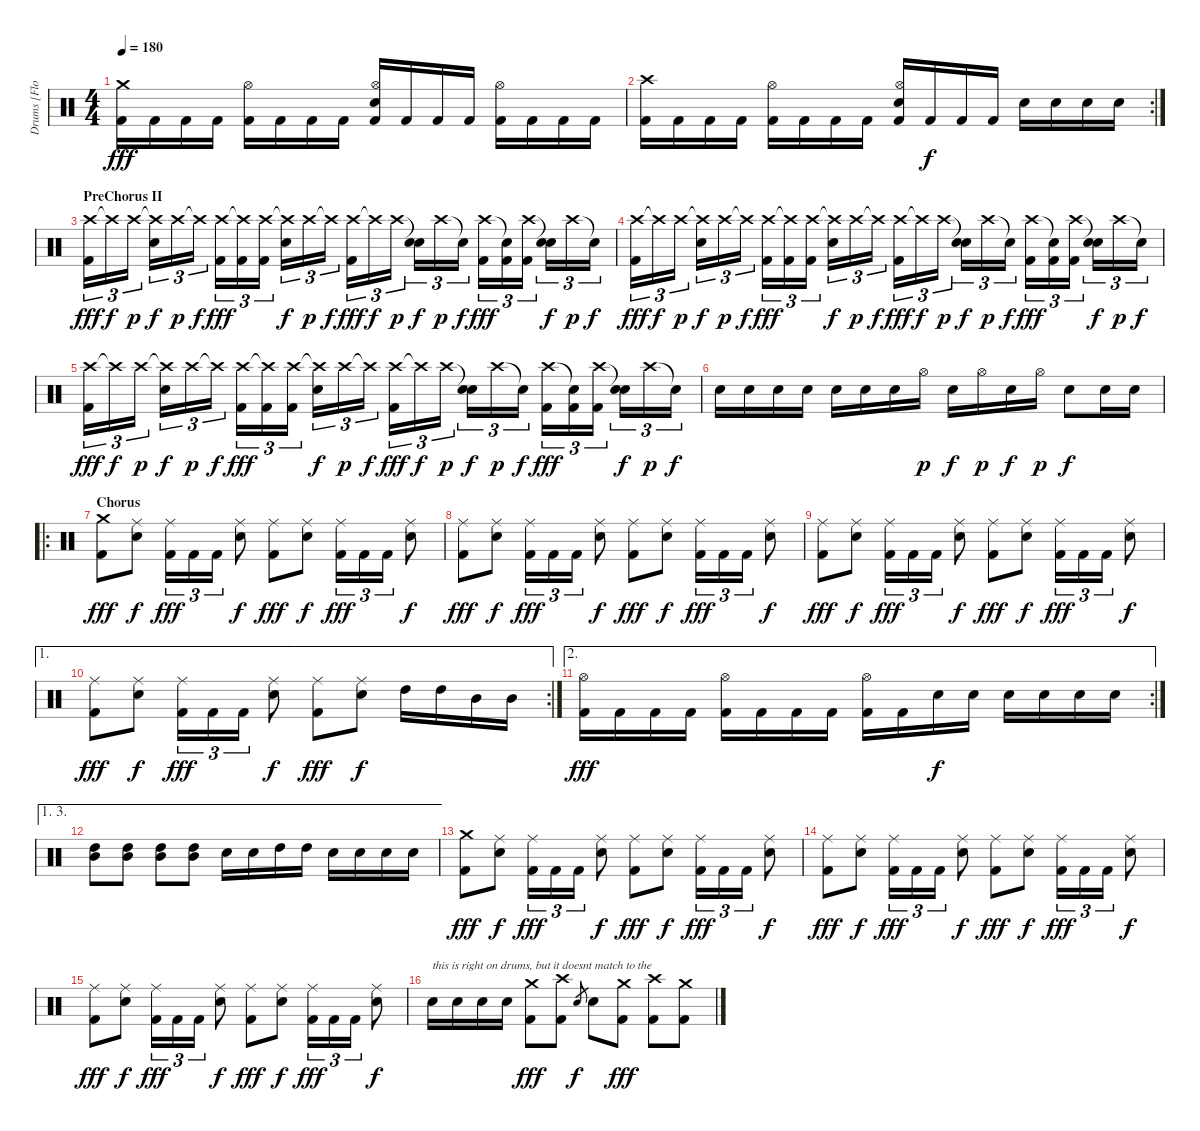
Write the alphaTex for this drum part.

\track ("Drums [Flo Mounier]" "Drums [Flo") {instrument percussion}
\staff {score}
\articulation defaults
\ts (4 4)
\tempo 180
\clef neutral
\ks c
("Crash medium (hit)" "Kick (hit) 2").16{dy fff} "Kick (hit) 2".16 "Kick (hit) 2".16 "Kick (hit) 2".16 ("Hi-Hat (open)" "Kick (hit) 2").16 "Kick (hit) 2".16 "Kick (hit) 2".16 "Kick (hit) 2".16 ("Hi-Hat (open)" "Electric Snare (hit)" "Kick (hit) 2").16 "Kick (hit) 2".16 "Kick (hit) 2".16 "Kick (hit) 2".16 ("Hi-Hat (open)" "Kick (hit) 2").16 "Kick (hit) 2".16 "Kick (hit) 2".16 "Kick (hit) 2".16 |
\rc 2
("Crash high (hit)" "Kick (hit) 2").16 "Kick (hit) 2".16 "Kick (hit) 2".16 "Kick (hit) 2".16 ("Hi-Hat (open)" "Kick (hit) 2").16 "Kick (hit) 2".16 "Kick (hit) 2".16 "Kick (hit) 2".16 ("Hi-Hat (open)" "Electric Snare (hit)" "Kick (hit) 2").16 "Kick (hit) 2".16{dy f} "Kick (hit) 2".16 "Kick (hit) 2".16 "Electric Snare (hit)".16 "Electric Snare (hit)".16 "Electric Snare (hit)".16 "Electric Snare (hit)".16 |
\section ("" "PreChorus II")
("Crash high (hit)" "Kick (hit) 2").16{tu (3 2) dy fff} "Crash high (hit)"{t}.16{tu (3 2) dy f} "Crash high (hit)".16{tu (3 2) dy p} ("Crash high (hit)"{t} "Electric Snare (hit)").16{tu (3 2) dy f} "Crash high (hit)".16{tu (3 2) dy p} "Crash high (hit)"{t}.16{tu (3 2) dy f} ("Crash high (hit)" "Kick (hit) 2").16{tu (3 2) dy fff} ("Crash high (hit)"{t} "Kick (hit) 2").16{tu (3 2)} ("Crash high (hit)" "Kick (hit) 2").16{tu (3 2)} ("Crash high (hit)"{t} "Electric Snare (hit)").16{tu (3 2) dy f} "Crash high (hit)".16{tu (3 2) dy p} "Crash high (hit)"{t}.16{tu (3 2) dy f} ("Crash high (hit)" "Kick (hit) 2").16{tu (3 2) dy fff} "Crash high (hit)"{t}.16{tu (3 2) dy f} "Crash high (hit)".16{tu (3 2) dy p} ("Snare (hit)"{t} "Electric Snare (hit)").16{tu (3 2) dy f} "Crash high (hit)".16{tu (3 2) dy p} "Snare (hit)"{t}.16{tu (3 2) dy f} ("Crash high (hit)" "Kick (hit) 2").16{tu (3 2) dy fff} ("Snare (hit)"{t} "Kick (hit) 2").16{tu (3 2)} ("Crash high (hit)" "Kick (hit) 2").16{tu (3 2)} ("Snare (hit)"{t} "Electric Snare (hit)").16{tu (3 2) dy f} "Crash high (hit)".16{tu (3 2) dy p} "Snare (hit)"{t}.16{tu (3 2) dy f} |
("Crash high (hit)" "Kick (hit) 2").16{tu (3 2) dy fff} "Crash high (hit)"{t}.16{tu (3 2) dy f} "Crash high (hit)".16{tu (3 2) dy p} ("Crash high (hit)"{t} "Electric Snare (hit)").16{tu (3 2) dy f} "Crash high (hit)".16{tu (3 2) dy p} "Crash high (hit)"{t}.16{tu (3 2) dy f} ("Crash high (hit)" "Kick (hit) 2").16{tu (3 2) dy fff} ("Crash high (hit)"{t} "Kick (hit) 2").16{tu (3 2)} ("Crash high (hit)" "Kick (hit) 2").16{tu (3 2)} ("Crash high (hit)"{t} "Electric Snare (hit)").16{tu (3 2) dy f} "Crash high (hit)".16{tu (3 2) dy p} "Crash high (hit)"{t}.16{tu (3 2) dy f} ("Crash high (hit)" "Kick (hit) 2").16{tu (3 2) dy fff} "Crash high (hit)"{t}.16{tu (3 2) dy f} "Crash high (hit)".16{tu (3 2) dy p} ("Snare (hit)"{t} "Electric Snare (hit)").16{tu (3 2) dy f} "Crash high (hit)".16{tu (3 2) dy p} "Snare (hit)"{t}.16{tu (3 2) dy f} ("Crash high (hit)" "Kick (hit) 2").16{tu (3 2) dy fff} ("Snare (hit)"{t} "Kick (hit) 2").16{tu (3 2)} ("Crash high (hit)" "Kick (hit) 2").16{tu (3 2)} ("Snare (hit)"{t} "Electric Snare (hit)").16{tu (3 2) dy f} "Crash high (hit)".16{tu (3 2) dy p} "Snare (hit)"{t}.16{tu (3 2) dy f} |
("Crash high (hit)" "Kick (hit) 2").16{tu (3 2) dy fff} "Crash high (hit)"{t}.16{tu (3 2) dy f} "Crash high (hit)".16{tu (3 2) dy p} ("Crash high (hit)"{t} "Electric Snare (hit)").16{tu (3 2) dy f} "Crash high (hit)".16{tu (3 2) dy p} "Crash high (hit)"{t}.16{tu (3 2) dy f} ("Crash high (hit)" "Kick (hit) 2").16{tu (3 2) dy fff} ("Crash high (hit)"{t} "Kick (hit) 2").16{tu (3 2)} ("Crash high (hit)" "Kick (hit) 2").16{tu (3 2)} ("Crash high (hit)"{t} "Electric Snare (hit)").16{tu (3 2) dy f} "Crash high (hit)".16{tu (3 2) dy p} "Crash high (hit)"{t}.16{tu (3 2) dy f} ("Crash high (hit)" "Kick (hit) 2").16{tu (3 2) dy fff} "Crash high (hit)"{t}.16{tu (3 2) dy f} "Crash high (hit)".16{tu (3 2) dy p} ("Snare (hit)"{t} "Electric Snare (hit)").16{tu (3 2) dy f} "Crash high (hit)".16{tu (3 2) dy p} "Snare (hit)"{t}.16{tu (3 2) dy f} ("Crash high (hit)" "Kick (hit) 2").16{tu (3 2) dy fff} ("Snare (hit)"{t} "Kick (hit) 2").16{tu (3 2)} ("Crash high (hit)" "Kick (hit) 2").16{tu (3 2)} ("Snare (hit)"{t} "Electric Snare (hit)").16{tu (3 2) dy f} "Crash high (hit)".16{tu (3 2) dy p} "Snare (hit)"{t}.16{tu (3 2) dy f} |
"Electric Snare (hit)".16 "Electric Snare (hit)".16 "Electric Snare (hit)".16 "Electric Snare (hit)".16 "Electric Snare (hit)".16 "Electric Snare (hit)".16 "Electric Snare (hit)".16 "Hi-Hat (open)".16{dy p} "Electric Snare (hit)".16{dy f} "Hi-Hat (open)".16{dy p} "Electric Snare (hit)".16{dy f} "Hi-Hat (open)".16{dy p} "Electric Snare (hit)".8{dy f} "Electric Snare (hit)".16 "Electric Snare (hit)".16 |
\ro
\section ("" "Chorus")
("Crash medium (hit)" "Kick (hit) 2").8{dy fff} ("Ride (middle)" "Electric Snare (hit)").8{dy f} ("Ride (middle)" "Kick (hit) 2").16{tu (3 2) dy fff} "Kick (hit) 2".16{tu (3 2)} "Kick (hit) 2".16{tu (3 2)} ("Ride (middle)" "Electric Snare (hit)").8{dy f} ("Ride (middle)" "Kick (hit) 2").8{dy fff} ("Ride (middle)" "Electric Snare (hit)").8{dy f} ("Ride (middle)" "Kick (hit) 2").16{tu (3 2) dy fff} "Kick (hit) 2".16{tu (3 2)} "Kick (hit) 2".16{tu (3 2)} ("Ride (middle)" "Electric Snare (hit)").8{dy f} |
("Ride (middle)" "Kick (hit) 2").8{dy fff} ("Ride (middle)" "Electric Snare (hit)").8{dy f} ("Ride (middle)" "Kick (hit) 2").16{tu (3 2) dy fff} "Kick (hit) 2".16{tu (3 2)} "Kick (hit) 2".16{tu (3 2)} ("Ride (middle)" "Electric Snare (hit)").8{dy f} ("Ride (middle)" "Kick (hit) 2").8{dy fff} ("Ride (middle)" "Electric Snare (hit)").8{dy f} ("Ride (middle)" "Kick (hit) 2").16{tu (3 2) dy fff} "Kick (hit) 2".16{tu (3 2)} "Kick (hit) 2".16{tu (3 2)} ("Ride (middle)" "Electric Snare (hit)").8{dy f} |
("Ride (middle)" "Kick (hit) 2").8{dy fff} ("Ride (middle)" "Electric Snare (hit)").8{dy f} ("Ride (middle)" "Kick (hit) 2").16{tu (3 2) dy fff} "Kick (hit) 2".16{tu (3 2)} "Kick (hit) 2".16{tu (3 2)} ("Ride (middle)" "Electric Snare (hit)").8{dy f} ("Ride (middle)" "Kick (hit) 2").8{dy fff} ("Ride (middle)" "Electric Snare (hit)").8{dy f} ("Ride (middle)" "Kick (hit) 2").16{tu (3 2) dy fff} "Kick (hit) 2".16{tu (3 2)} "Kick (hit) 2".16{tu (3 2)} ("Ride (middle)" "Electric Snare (hit)").8{dy f} |
\ae 1
\rc 2
("Ride (middle)" "Kick (hit) 2").8{dy fff} ("Ride (middle)" "Electric Snare (hit)").8{dy f} ("Ride (middle)" "Kick (hit) 2").16{tu (3 2) dy fff} "Kick (hit) 2".16{tu (3 2)} "Kick (hit) 2".16{tu (3 2)} ("Ride (middle)" "Electric Snare (hit)").8{dy f} ("Ride (middle)" "Kick (hit) 2").8{dy fff} ("Ride (middle)" "Electric Snare (hit)").8{dy f} "High Tom (hit)".16 "High Tom (hit)".16 "Mid Tom (hit)".16 "Mid Tom (hit)".16 |
\ae 2
\rc 2
("Hi-Hat (open)" "Kick (hit) 2").16{dy fff} "Kick (hit) 2".16 "Kick (hit) 2".16 "Kick (hit) 2".16 ("Hi-Hat (open)" "Kick (hit) 2").16 "Kick (hit) 2".16 "Kick (hit) 2".16 "Kick (hit) 2".16 ("Hi-Hat (open)" "Kick (hit) 2").16 "Kick (hit) 2".16 "Electric Snare (hit)".16{dy f} "Electric Snare (hit)".16 "Electric Snare (hit)".16 "Electric Snare (hit)".16 "Electric Snare (hit)".16 "Electric Snare (hit)".16 |
\ae (1 3)
("High Tom (hit)" "Mid Tom (hit)").8 ("High Tom (hit)" "Mid Tom (hit)").8 ("High Tom (hit)" "Mid Tom (hit)").8 ("High Tom (hit)" "Mid Tom (hit)").8 "Electric Snare (hit)".16 "Electric Snare (hit)".16 "High Tom (hit)".16 "High Tom (hit)".16 "Electric Snare (hit)".16 "Electric Snare (hit)".16 "Electric Snare (hit)".16 "Electric Snare (hit)".16 |
("Crash medium (hit)" "Kick (hit) 2").8{dy fff} ("Ride (middle)" "Electric Snare (hit)").8{dy f} ("Ride (middle)" "Kick (hit) 2").16{tu (3 2) dy fff} "Kick (hit) 2".16{tu (3 2)} "Kick (hit) 2".16{tu (3 2)} ("Ride (middle)" "Electric Snare (hit)").8{dy f} ("Ride (middle)" "Kick (hit) 2").8{dy fff} ("Ride (middle)" "Electric Snare (hit)").8{dy f} ("Ride (middle)" "Kick (hit) 2").16{tu (3 2) dy fff} "Kick (hit) 2".16{tu (3 2)} "Kick (hit) 2".16{tu (3 2)} ("Ride (middle)" "Electric Snare (hit)").8{dy f} |
("Ride (middle)" "Kick (hit) 2").8{dy fff} ("Ride (middle)" "Electric Snare (hit)").8{dy f} ("Ride (middle)" "Kick (hit) 2").16{tu (3 2) dy fff} "Kick (hit) 2".16{tu (3 2)} "Kick (hit) 2".16{tu (3 2)} ("Ride (middle)" "Electric Snare (hit)").8{dy f} ("Ride (middle)" "Kick (hit) 2").8{dy fff} ("Ride (middle)" "Electric Snare (hit)").8{dy f} ("Ride (middle)" "Kick (hit) 2").16{tu (3 2) dy fff} "Kick (hit) 2".16{tu (3 2)} "Kick (hit) 2".16{tu (3 2)} ("Ride (middle)" "Electric Snare (hit)").8{dy f} |
("Ride (middle)" "Kick (hit) 2").8{dy fff} ("Ride (middle)" "Electric Snare (hit)").8{dy f} ("Ride (middle)" "Kick (hit) 2").16{tu (3 2) dy fff} "Kick (hit) 2".16{tu (3 2)} "Kick (hit) 2".16{tu (3 2)} ("Ride (middle)" "Electric Snare (hit)").8{dy f} ("Ride (middle)" "Kick (hit) 2").8{dy fff} ("Ride (middle)" "Electric Snare (hit)").8{dy f} ("Ride (middle)" "Kick (hit) 2").16{tu (3 2) dy fff} "Kick (hit) 2".16{tu (3 2)} "Kick (hit) 2".16{tu (3 2)} ("Ride (middle)" "Electric Snare (hit)").8{dy f} |
"Electric Snare (hit)".16{txt "this is right on drums, but it doesnt match to the"} "Electric Snare (hit)".16 "Electric Snare (hit)".16 "Electric Snare (hit)".16 ("Crash medium (hit)" "Kick (hit) 2").8{dy fff} ("Crash high (hit)" "Kick (hit) 2").8 "Electric Snare (hit)".8{gr dy f} "Electric Snare (hit)".8 ("Crash medium (hit)" "Kick (hit) 2").8{dy fff} ("Crash high (hit)" "Kick (hit) 2").8 ("Crash medium (hit)" "Kick (hit) 2").8
